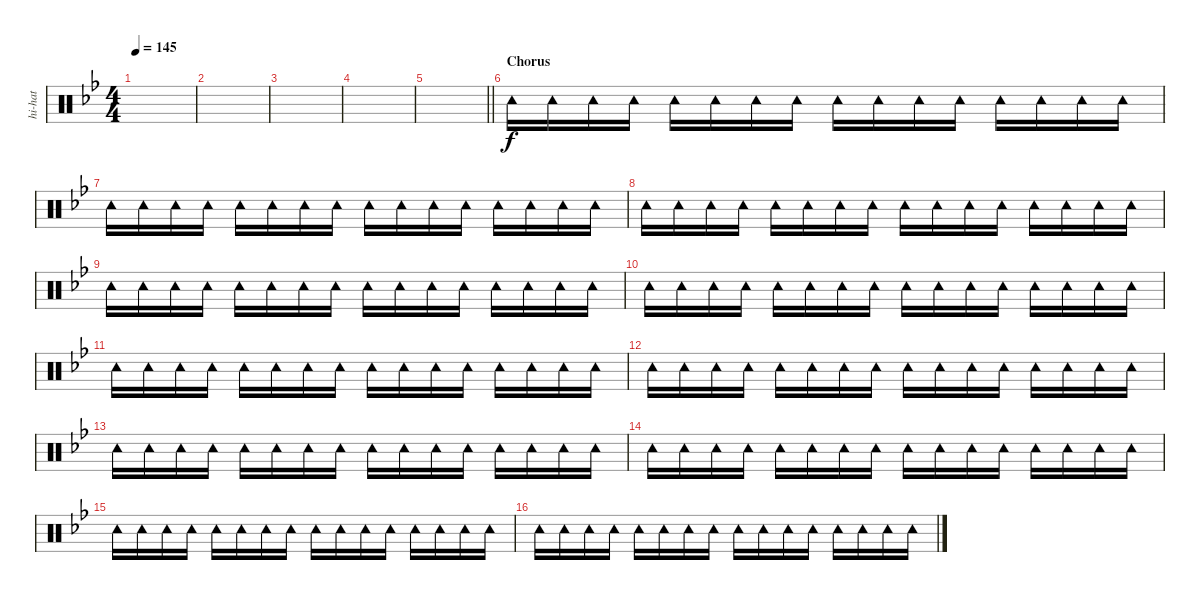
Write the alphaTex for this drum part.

\track ("hi-hat" "hi-hat") {instrument percussion}
\staff {score}
\articulation defaults
\ts (4 4)
\tempo 145
\clef neutral
\ks bb
|
|
|
|
\barLineRight lightlight
|
\section ("" "Chorus")
"Tambourine (hit)".16 "Tambourine (hit)".16 "Tambourine (hit)".16 "Tambourine (hit)".16 "Tambourine (hit)".16 "Tambourine (hit)".16 "Tambourine (hit)".16 "Tambourine (hit)".16 "Tambourine (hit)".16 "Tambourine (hit)".16 "Tambourine (hit)".16 "Tambourine (hit)".16 "Tambourine (hit)".16 "Tambourine (hit)".16 "Tambourine (hit)".16 "Tambourine (hit)".16 |
"Tambourine (hit)".16 "Tambourine (hit)".16 "Tambourine (hit)".16 "Tambourine (hit)".16 "Tambourine (hit)".16 "Tambourine (hit)".16 "Tambourine (hit)".16 "Tambourine (hit)".16 "Tambourine (hit)".16 "Tambourine (hit)".16 "Tambourine (hit)".16 "Tambourine (hit)".16 "Tambourine (hit)".16 "Tambourine (hit)".16 "Tambourine (hit)".16 "Tambourine (hit)".16 |
"Tambourine (hit)".16 "Tambourine (hit)".16 "Tambourine (hit)".16 "Tambourine (hit)".16 "Tambourine (hit)".16 "Tambourine (hit)".16 "Tambourine (hit)".16 "Tambourine (hit)".16 "Tambourine (hit)".16 "Tambourine (hit)".16 "Tambourine (hit)".16 "Tambourine (hit)".16 "Tambourine (hit)".16 "Tambourine (hit)".16 "Tambourine (hit)".16 "Tambourine (hit)".16 |
"Tambourine (hit)".16 "Tambourine (hit)".16 "Tambourine (hit)".16 "Tambourine (hit)".16 "Tambourine (hit)".16 "Tambourine (hit)".16 "Tambourine (hit)".16 "Tambourine (hit)".16 "Tambourine (hit)".16 "Tambourine (hit)".16 "Tambourine (hit)".16 "Tambourine (hit)".16 "Tambourine (hit)".16 "Tambourine (hit)".16 "Tambourine (hit)".16 "Tambourine (hit)".16 |
"Tambourine (hit)".16 "Tambourine (hit)".16 "Tambourine (hit)".16 "Tambourine (hit)".16 "Tambourine (hit)".16 "Tambourine (hit)".16 "Tambourine (hit)".16 "Tambourine (hit)".16 "Tambourine (hit)".16 "Tambourine (hit)".16 "Tambourine (hit)".16 "Tambourine (hit)".16 "Tambourine (hit)".16 "Tambourine (hit)".16 "Tambourine (hit)".16 "Tambourine (hit)".16 |
"Tambourine (hit)".16 "Tambourine (hit)".16 "Tambourine (hit)".16 "Tambourine (hit)".16 "Tambourine (hit)".16 "Tambourine (hit)".16 "Tambourine (hit)".16 "Tambourine (hit)".16 "Tambourine (hit)".16 "Tambourine (hit)".16 "Tambourine (hit)".16 "Tambourine (hit)".16 "Tambourine (hit)".16 "Tambourine (hit)".16 "Tambourine (hit)".16 "Tambourine (hit)".16 |
"Tambourine (hit)".16 "Tambourine (hit)".16 "Tambourine (hit)".16 "Tambourine (hit)".16 "Tambourine (hit)".16 "Tambourine (hit)".16 "Tambourine (hit)".16 "Tambourine (hit)".16 "Tambourine (hit)".16 "Tambourine (hit)".16 "Tambourine (hit)".16 "Tambourine (hit)".16 "Tambourine (hit)".16 "Tambourine (hit)".16 "Tambourine (hit)".16 "Tambourine (hit)".16 |
"Tambourine (hit)".16 "Tambourine (hit)".16 "Tambourine (hit)".16 "Tambourine (hit)".16 "Tambourine (hit)".16 "Tambourine (hit)".16 "Tambourine (hit)".16 "Tambourine (hit)".16 "Tambourine (hit)".16 "Tambourine (hit)".16 "Tambourine (hit)".16 "Tambourine (hit)".16 "Tambourine (hit)".16 "Tambourine (hit)".16 "Tambourine (hit)".16 "Tambourine (hit)".16 |
"Tambourine (hit)".16 "Tambourine (hit)".16 "Tambourine (hit)".16 "Tambourine (hit)".16 "Tambourine (hit)".16 "Tambourine (hit)".16 "Tambourine (hit)".16 "Tambourine (hit)".16 "Tambourine (hit)".16 "Tambourine (hit)".16 "Tambourine (hit)".16 "Tambourine (hit)".16 "Tambourine (hit)".16 "Tambourine (hit)".16 "Tambourine (hit)".16 "Tambourine (hit)".16 |
"Tambourine (hit)".16 "Tambourine (hit)".16 "Tambourine (hit)".16 "Tambourine (hit)".16 "Tambourine (hit)".16 "Tambourine (hit)".16 "Tambourine (hit)".16 "Tambourine (hit)".16 "Tambourine (hit)".16 "Tambourine (hit)".16 "Tambourine (hit)".16 "Tambourine (hit)".16 "Tambourine (hit)".16 "Tambourine (hit)".16 "Tambourine (hit)".16 "Tambourine (hit)".16 |
"Tambourine (hit)".16 "Tambourine (hit)".16 "Tambourine (hit)".16 "Tambourine (hit)".16 "Tambourine (hit)".16 "Tambourine (hit)".16 "Tambourine (hit)".16 "Tambourine (hit)".16 "Tambourine (hit)".16 "Tambourine (hit)".16 "Tambourine (hit)".16 "Tambourine (hit)".16 "Tambourine (hit)".16 "Tambourine (hit)".16 "Tambourine (hit)".16 "Tambourine (hit)".16
